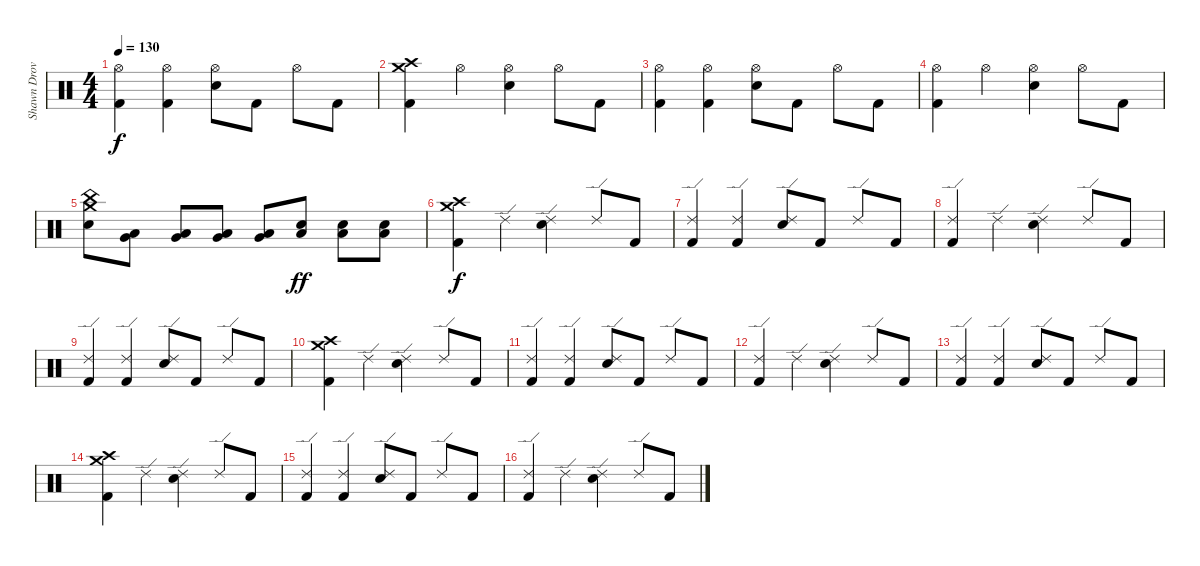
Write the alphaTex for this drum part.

\track ("Shawn Drover" "Shawn Drov") {instrument percussion}
\staff {score}
\articulation defaults
\ts (4 4)
\tempo 130
\clef neutral
\ks c
("Hi-Hat (open)" "Kick (hit) 2").4{dy f} ("Hi-Hat (open)" "Kick (hit) 2").4 ("Hi-Hat (open)" "Snare (hit) 2").8 "Kick (hit) 2".8 "Hi-Hat (open)".8 "Kick (hit) 2".8 |
("Crash high (hit)" "Crash medium (hit)" "Kick (hit) 2").4 "Hi-Hat (open)".4 ("Hi-Hat (open)" "Snare (hit) 2").4 "Hi-Hat (open)".8 "Kick (hit) 2".8 |
("Hi-Hat (open)" "Kick (hit) 2").4 ("Hi-Hat (open)" "Kick (hit) 2").4 ("Hi-Hat (open)" "Snare (hit) 2").8 "Kick (hit) 2".8 "Hi-Hat (open)".8 "Kick (hit) 2".8 |
("Hi-Hat (open)" "Kick (hit) 2").4 "Hi-Hat (open)".4 ("Hi-Hat (open)" "Snare (hit) 2").4 "Hi-Hat (open)".8 "Kick (hit) 2".8 |
("China (hit)" "Snare (hit) 2" "Crash medium (hit)").8 ("Low Floor Tom (hit)" "Very Low Tom (hit)").8 ("Low Floor Tom (hit)" "Very Low Tom (hit)").8 ("Low Floor Tom (hit)" "Very Low Tom (hit)").8 ("Low Floor Tom (hit)" "Very Low Tom (hit)").8 ("Snare (hit) 2" "Low Floor Tom (hit)").8{dy ff} ("Snare (hit) 2" "Low Floor Tom (hit)").8 ("Snare (hit) 2" "Low Floor Tom (hit)").8 |
("Crash high (hit)" "Crash medium (hit)" "Kick (hit) 2").4{dy f} "Ride (edge) 2".4 ("Ride (edge) 2" "Snare (hit) 2").4 "Ride (edge) 2".8 "Kick (hit) 2".8 |
("Ride (edge) 2" "Kick (hit) 2").4 ("Ride (edge) 2" "Kick (hit) 2").4 ("Ride (edge) 2" "Snare (hit) 2").8 "Kick (hit) 2".8 "Ride (edge) 2".8 "Kick (hit) 2".8 |
("Ride (edge) 2" "Kick (hit) 2").4 "Ride (edge) 2".4 ("Ride (edge) 2" "Snare (hit) 2").4 "Ride (edge) 2".8 "Kick (hit) 2".8 |
("Ride (edge) 2" "Kick (hit) 2").4 ("Ride (edge) 2" "Kick (hit) 2").4 ("Ride (edge) 2" "Snare (hit) 2").8 "Kick (hit) 2".8 "Ride (edge) 2".8 "Kick (hit) 2".8 |
("Crash high (hit)" "Crash medium (hit)" "Kick (hit) 2").4 "Ride (edge) 2".4 ("Ride (edge) 2" "Snare (hit) 2").4 "Ride (edge) 2".8 "Kick (hit) 2".8 |
("Ride (edge) 2" "Kick (hit) 2").4 ("Ride (edge) 2" "Kick (hit) 2").4 ("Ride (edge) 2" "Snare (hit) 2").8 "Kick (hit) 2".8 "Ride (edge) 2".8 "Kick (hit) 2".8 |
("Ride (edge) 2" "Kick (hit) 2").4 "Ride (edge) 2".4 ("Ride (edge) 2" "Snare (hit) 2").4 "Ride (edge) 2".8 "Kick (hit) 2".8 |
("Ride (edge) 2" "Kick (hit) 2").4 ("Ride (edge) 2" "Kick (hit) 2").4 ("Ride (edge) 2" "Snare (hit) 2").8 "Kick (hit) 2".8 "Ride (edge) 2".8 "Kick (hit) 2".8 |
("Crash high (hit)" "Crash medium (hit)" "Kick (hit) 2").4 "Ride (edge) 2".4 ("Ride (edge) 2" "Snare (hit) 2").4 "Ride (edge) 2".8 "Kick (hit) 2".8 |
("Ride (edge) 2" "Kick (hit) 2").4 ("Ride (edge) 2" "Kick (hit) 2").4 ("Ride (edge) 2" "Snare (hit) 2").8 "Kick (hit) 2".8 "Ride (edge) 2".8 "Kick (hit) 2".8 |
("Ride (edge) 2" "Kick (hit) 2").4 "Ride (edge) 2".4 ("Ride (edge) 2" "Snare (hit) 2").4 "Ride (edge) 2".8 "Kick (hit) 2".8
